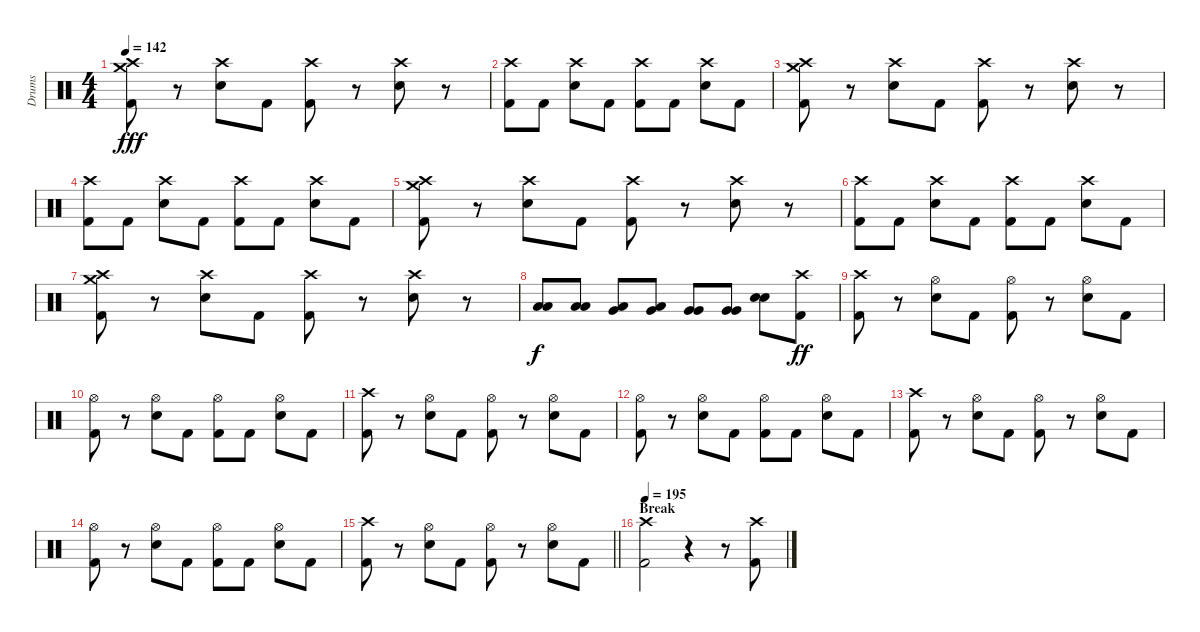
\track ("Drums" "Drums") {instrument percussion}
\staff {score}
\articulation defaults
\ts (4 4)
\tempo 142
\clef neutral
\ks c
("Crash high (hit)" "Crash medium (hit)" "Kick (hit) 2").8{dy fff} r.8 ("Crash high (hit)" "Snare (hit) 2").8 "Kick (hit) 2".8 ("Crash high (hit)" "Kick (hit) 2").8 r.8 ("Crash high (hit)" "Snare (hit) 2").8 r.8 |
("Crash high (hit)" "Kick (hit) 2").8 "Kick (hit) 2".8 ("Crash high (hit)" "Snare (hit) 2").8 "Kick (hit) 2".8 ("Crash high (hit)" "Kick (hit) 2").8 "Kick (hit) 2".8 ("Crash high (hit)" "Snare (hit) 2").8 "Kick (hit) 2".8 |
("Crash high (hit)" "Crash medium (hit)" "Kick (hit) 2").8 r.8 ("Crash high (hit)" "Snare (hit) 2").8 "Kick (hit) 2".8 ("Crash high (hit)" "Kick (hit) 2").8 r.8 ("Crash high (hit)" "Snare (hit) 2").8 r.8 |
("Crash high (hit)" "Kick (hit) 2").8 "Kick (hit) 2".8 ("Crash high (hit)" "Snare (hit) 2").8 "Kick (hit) 2".8 ("Crash high (hit)" "Kick (hit) 2").8 "Kick (hit) 2".8 ("Crash high (hit)" "Snare (hit) 2").8 "Kick (hit) 2".8 |
("Crash high (hit)" "Crash medium (hit)" "Kick (hit) 2").8 r.8 ("Crash high (hit)" "Snare (hit) 2").8 "Kick (hit) 2".8 ("Crash high (hit)" "Kick (hit) 2").8 r.8 ("Crash high (hit)" "Snare (hit) 2").8 r.8 |
("Crash high (hit)" "Kick (hit) 2").8 "Kick (hit) 2".8 ("Crash high (hit)" "Snare (hit) 2").8 "Kick (hit) 2".8 ("Crash high (hit)" "Kick (hit) 2").8 "Kick (hit) 2".8 ("Crash high (hit)" "Snare (hit) 2").8 "Kick (hit) 2".8 |
("Crash high (hit)" "Crash medium (hit)" "Kick (hit) 2").8 r.8 ("Crash high (hit)" "Snare (hit) 2").8 "Kick (hit) 2".8 ("Crash high (hit)" "Kick (hit) 2").8 r.8 ("Crash high (hit)" "Snare (hit) 2").8 r.8 |
("Low Floor Tom (hit)" "Low Floor Tom (hit)").8{dy f} ("Low Floor Tom (hit)" "Low Floor Tom (hit)").8 ("Very Low Tom (hit)" "Low Floor Tom (hit)").8 ("Very Low Tom (hit)" "Low Floor Tom (hit)").8 ("Very Low Tom (hit)" "Very Low Tom (hit)").8 ("Very Low Tom (hit)" "Very Low Tom (hit)").8 ("Snare (hit) 2" "Snare (hit) 2").8 ("Crash high (hit)" "Kick (hit) 2").8{dy ff} |
("Crash high (hit)" "Kick (hit) 2").8 r.8 ("Hi-Hat (open)" "Snare (hit) 2").8 "Kick (hit) 2".8 ("Hi-Hat (open)" "Kick (hit) 2").8 r.8 ("Hi-Hat (open)" "Snare (hit) 2").8 "Kick (hit) 2".8 |
("Hi-Hat (open)" "Kick (hit) 2").8 r.8 ("Hi-Hat (open)" "Snare (hit) 2").8 "Kick (hit) 2".8 ("Hi-Hat (open)" "Kick (hit) 2").8 "Kick (hit) 2".8 ("Hi-Hat (open)" "Snare (hit) 2").8 "Kick (hit) 2".8 |
("Crash high (hit)" "Kick (hit) 2").8 r.8 ("Hi-Hat (open)" "Snare (hit) 2").8 "Kick (hit) 2".8 ("Hi-Hat (open)" "Kick (hit) 2").8 r.8 ("Hi-Hat (open)" "Snare (hit) 2").8 "Kick (hit) 2".8 |
("Hi-Hat (open)" "Kick (hit) 2").8 r.8 ("Hi-Hat (open)" "Snare (hit) 2").8 "Kick (hit) 2".8 ("Hi-Hat (open)" "Kick (hit) 2").8 "Kick (hit) 2".8 ("Hi-Hat (open)" "Snare (hit) 2").8 "Kick (hit) 2".8 |
("Crash high (hit)" "Kick (hit) 2").8 r.8 ("Hi-Hat (open)" "Snare (hit) 2").8 "Kick (hit) 2".8 ("Hi-Hat (open)" "Kick (hit) 2").8 r.8 ("Hi-Hat (open)" "Snare (hit) 2").8 "Kick (hit) 2".8 |
("Hi-Hat (open)" "Kick (hit) 2").8 r.8 ("Hi-Hat (open)" "Snare (hit) 2").8 "Kick (hit) 2".8 ("Hi-Hat (open)" "Kick (hit) 2").8 "Kick (hit) 2".8 ("Hi-Hat (open)" "Snare (hit) 2").8 "Kick (hit) 2".8 |
\barLineRight lightlight
("Crash high (hit)" "Kick (hit) 2").8 r.8 ("Hi-Hat (open)" "Snare (hit) 2").8 "Kick (hit) 2".8 ("Hi-Hat (open)" "Kick (hit) 2").8 r.8 ("Hi-Hat (open)" "Snare (hit) 2").8 "Kick (hit) 2".8 |
\section ("" "Break")
\tempo 195
("Crash high (hit)" "Kick (hit) 2").2 r.4 r.8 ("Crash high (hit)" "Kick (hit) 2").8
